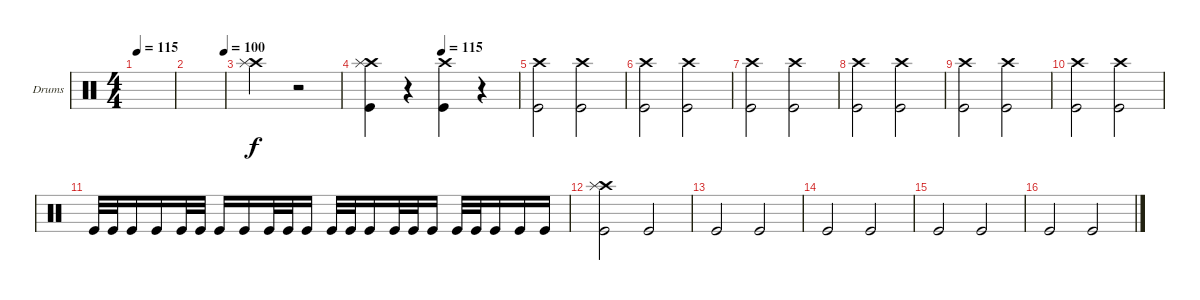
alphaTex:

\bracketExtendMode groupsimilarinstruments
\firstSystemTrackNameOrientation horizontal
\otherSystemsTrackNameOrientation horizontal
\track ("Drumkit" "Drums") {instrument percussion}
\staff {score}
\articulation defaults
\ts (4 4)
\beaming (8 2 2 2 2)
\ac
\tempo 115
\clef neutral
\scale
0.472222
\ks c
|
\tempo (100 1)
\scale
0.263889 |
("Crash high (hit)" "Splash (hit)").2 r.2 |
\tempo (115 0.5)
\scale
0.263889 ("Kick (hit)" "Crash high (hit)" "Splash (hit)").4 r.4 ("Kick (hit)" "Crash high (hit)").4 r.4 |
\scale
0.333333 ("Kick (hit)" "Crash high (hit)").2 ("Kick (hit)" "Crash high (hit)").2 |
\scale
0.333333 ("Kick (hit)" "Crash high (hit)").2 ("Kick (hit)" "Crash high (hit)").2 |
\scale
0.333333 ("Kick (hit)" "Crash high (hit)").2 ("Kick (hit)" "Crash high (hit)").2 |
\scale
0.333333 ("Kick (hit)" "Crash high (hit)").2 ("Kick (hit)" "Crash high (hit)").2 |
\scale
0.333333 ("Kick (hit)" "Crash high (hit)").2 ("Kick (hit)" "Crash high (hit)").2 |
\scale
0.333333 ("Kick (hit)" "Crash high (hit)").2 ("Kick (hit)" "Crash high (hit)").2 |
\scale
0.333333 "Kick (hit)".32 "Kick (hit)".32 "Kick (hit)".16 "Kick (hit)".16 "Kick (hit)".32 "Kick (hit)".32 "Kick (hit)".16 "Kick (hit)".16 "Kick (hit)".32 "Kick (hit)".32 "Kick (hit)".16 "Kick (hit)".32 "Kick (hit)".32 "Kick (hit)".16 "Kick (hit)".32 "Kick (hit)".32 "Kick (hit)".16 "Kick (hit)".32 "Kick (hit)".32 "Kick (hit)".16 "Kick (hit)".16 "Kick (hit)".16 |
\scale
0.333333 ("Kick (hit)" "Crash high (hit)" "Splash (hit)").2 "Kick (hit)".2 |
\scale
0.333333 "Kick (hit)".2 "Kick (hit)".2 |
\scale
0.333333 "Kick (hit)".2 "Kick (hit)".2 |
\scale
0.333333 "Kick (hit)".2 "Kick (hit)".2 |
\scale
0.333333 "Kick (hit)".2 "Kick (hit)".2
